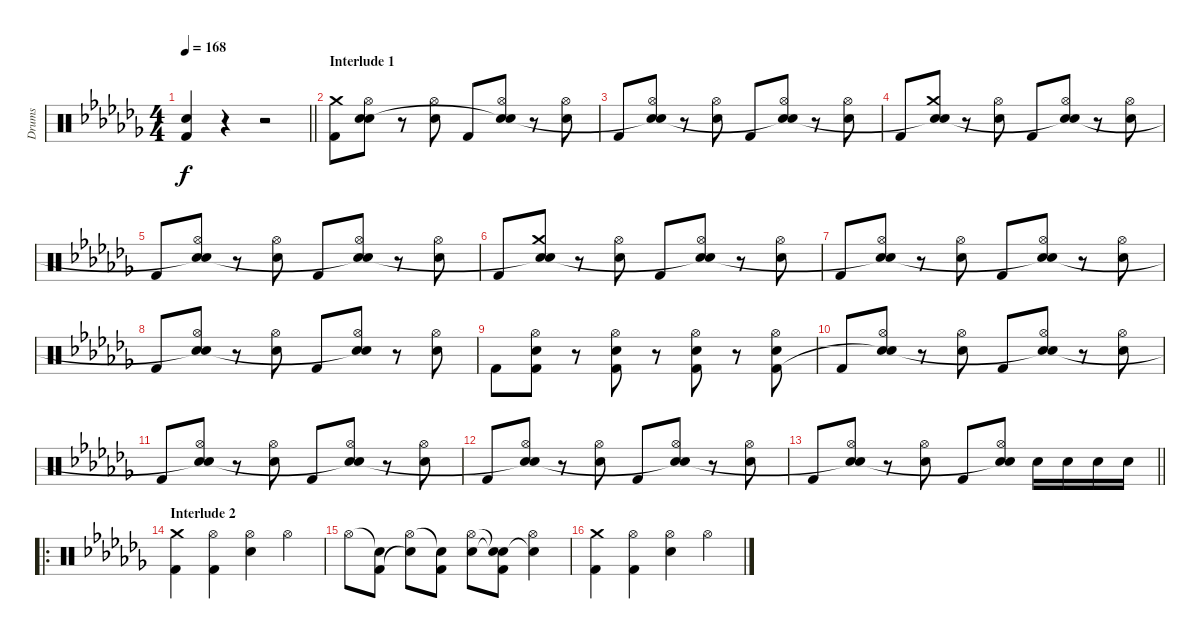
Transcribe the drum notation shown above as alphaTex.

\track ("Drums" "Drums") {instrument percussion}
\staff {score}
\articulation defaults
\ts (4 4)
\tempo 168
\clef neutral
\barLineRight lightlight
\ks abminor
("Electric Snare (hit)" "Kick (hit) 2").4{dy f} r.4 r.2 |
\section ("" "Interlude 1")
("Crash medium (hit)" "Kick (hit) 2").8 ("Hi-Hat (open)" "Electric Snare (hit)" "Snare (hit)").8 r.8 ("Hi-Hat (open)" "Electric Snare (hit)").8 "Kick (hit) 2".8 ("Hi-Hat (open)" "Electric Snare (hit)" "Snare (hit)"{t}).8 r.8 ("Hi-Hat (open)" "Electric Snare (hit)").8 |
"Kick (hit) 2".8 ("Hi-Hat (open)" "Electric Snare (hit)" "Snare (hit)"{t}).8 r.8 ("Hi-Hat (open)" "Electric Snare (hit)").8 "Kick (hit) 2".8 ("Hi-Hat (open)" "Electric Snare (hit)" "Snare (hit)"{t}).8 r.8 ("Hi-Hat (open)" "Electric Snare (hit)").8 |
"Kick (hit) 2".8 ("Crash medium (hit)" "Electric Snare (hit)" "Snare (hit)"{t}).8 r.8 ("Hi-Hat (open)" "Electric Snare (hit)").8 "Kick (hit) 2".8 ("Hi-Hat (open)" "Electric Snare (hit)" "Snare (hit)"{t}).8 r.8 ("Hi-Hat (open)" "Electric Snare (hit)").8 |
"Kick (hit) 2".8 ("Hi-Hat (open)" "Electric Snare (hit)" "Snare (hit)"{t}).8 r.8 ("Hi-Hat (open)" "Electric Snare (hit)").8 "Kick (hit) 2".8 ("Hi-Hat (open)" "Electric Snare (hit)" "Snare (hit)"{t}).8 r.8 ("Hi-Hat (open)" "Electric Snare (hit)").8 |
"Kick (hit) 2".8 ("Crash medium (hit)" "Electric Snare (hit)" "Snare (hit)"{t}).8 r.8 ("Hi-Hat (open)" "Electric Snare (hit)").8 "Kick (hit) 2".8 ("Hi-Hat (open)" "Electric Snare (hit)" "Snare (hit)"{t}).8 r.8 ("Hi-Hat (open)" "Electric Snare (hit)").8 |
"Kick (hit) 2".8 ("Hi-Hat (open)" "Electric Snare (hit)" "Snare (hit)"{t}).8 r.8 ("Hi-Hat (open)" "Electric Snare (hit)").8 "Kick (hit) 2".8 ("Hi-Hat (open)" "Electric Snare (hit)" "Snare (hit)"{t}).8 r.8 ("Hi-Hat (open)" "Electric Snare (hit)").8 |
"Kick (hit) 2".8 ("Hi-Hat (open)" "Electric Snare (hit)" "Snare (hit)"{t}).8 r.8 ("Hi-Hat (open)" "Electric Snare (hit)").8 "Kick (hit) 2".8 ("Hi-Hat (open)" "Electric Snare (hit)" "Snare (hit)"{t}).8 r.8 ("Hi-Hat (open)" "Electric Snare (hit)").8 |
"Kick (hit) 2".8 ("Hi-Hat (open)" "Electric Snare (hit)" "Kick (hit) 2").8 r.8 ("Hi-Hat (open)" "Electric Snare (hit)" "Kick (hit) 2").8 r.8 ("Hi-Hat (open)" "Electric Snare (hit)" "Kick (hit) 2").8 r.8 ("Hi-Hat (open)" "Electric Snare (hit)" "Kick (hit) 2").8 |
"Kick (hit) 2".8 ("Hi-Hat (open)" "Electric Snare (hit)" "Snare (hit)"{t}).8 r.8 ("Hi-Hat (open)" "Electric Snare (hit)").8 "Kick (hit) 2".8 ("Hi-Hat (open)" "Electric Snare (hit)" "Snare (hit)"{t}).8 r.8 ("Hi-Hat (open)" "Electric Snare (hit)").8 |
"Kick (hit) 2".8 ("Hi-Hat (open)" "Electric Snare (hit)" "Snare (hit)"{t}).8 r.8 ("Hi-Hat (open)" "Electric Snare (hit)").8 "Kick (hit) 2".8 ("Hi-Hat (open)" "Electric Snare (hit)" "Snare (hit)"{t}).8 r.8 ("Hi-Hat (open)" "Electric Snare (hit)").8 |
"Kick (hit) 2".8 ("Hi-Hat (open)" "Electric Snare (hit)" "Snare (hit)"{t}).8 r.8 ("Hi-Hat (open)" "Electric Snare (hit)").8 "Kick (hit) 2".8 ("Hi-Hat (open)" "Electric Snare (hit)" "Snare (hit)"{t}).8 r.8 ("Hi-Hat (open)" "Electric Snare (hit)").8 |
\barLineRight lightlight "Kick (hit) 2".8
("Hi-Hat (open)" "Electric Snare (hit)" "Snare (hit)"{t}).8 r.8 ("Hi-Hat (open)" "Electric Snare (hit)").8 "Kick (hit) 2".8 ("Hi-Hat (open)" "Electric Snare (hit)" "Snare (hit)"{t}).8 "Electric Snare (hit)".16 "Electric Snare (hit)".16 "Electric Snare (hit)".16 "Electric Snare (hit)".16 |
\ro
\section ("" "Interlude 2")
("Crash medium (hit)" "Kick (hit) 2").4 ("Hi-Hat (open)" "Kick (hit) 2").4 ("Hi-Hat (open)" "Electric Snare (hit)").4 "Hi-Hat (open)".4 |
"Hi-Hat (open)".8 ("Snare (hit)"{t} "Kick (hit) 2").8 ("Hi-Hat (open)" "Snare (hit)"{t}).8 ("Snare (hit)"{t} "Kick (hit) 2").8 ("Hi-Hat (open)" "Electric Snare (hit)").8 ("Snare (hit)"{t} "Snare (hit)"{t} "Kick (hit) 2").8 ("Hi-Hat (open)" "Snare (hit)"{t}).4 |
("Crash medium (hit)" "Kick (hit) 2").4 ("Hi-Hat (open)" "Kick (hit) 2").4 ("Hi-Hat (open)" "Electric Snare (hit)").4 "Hi-Hat (open)".4
